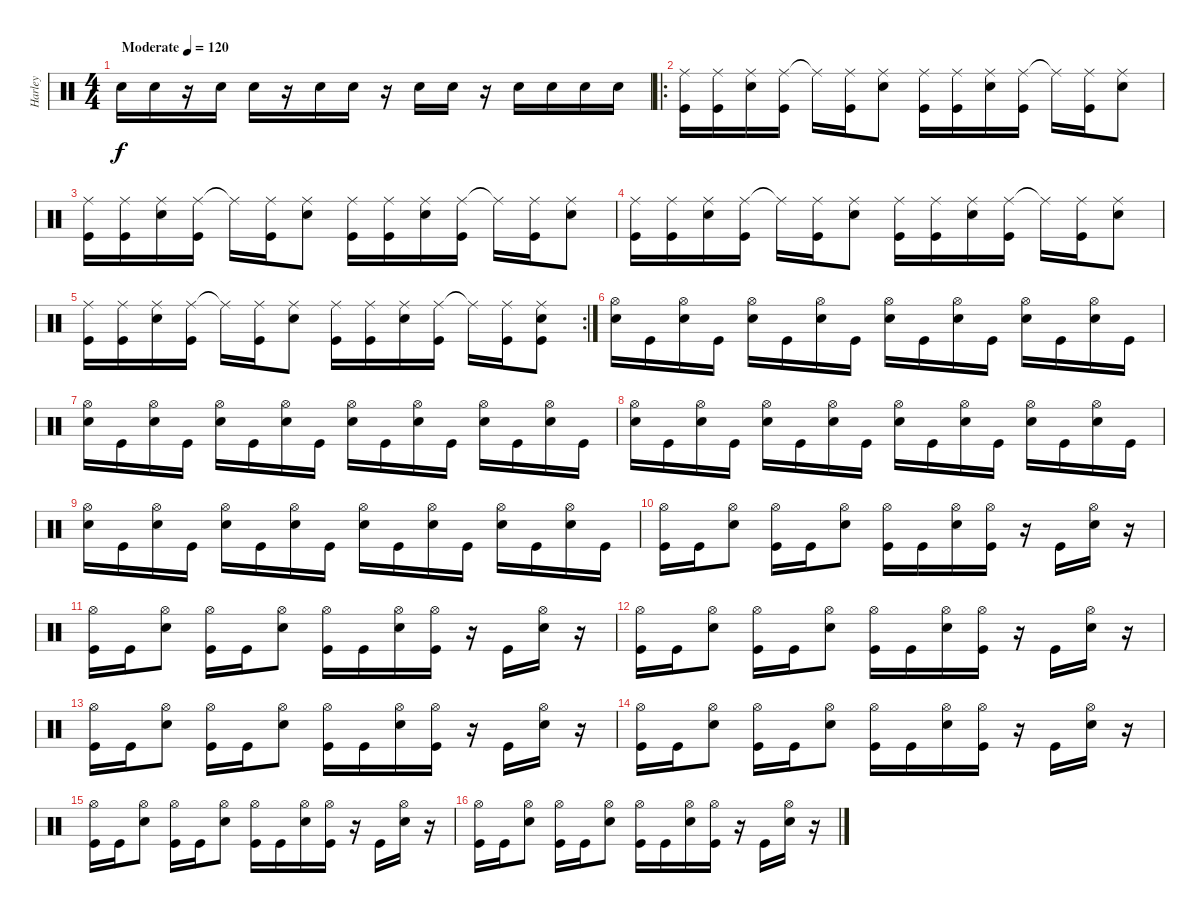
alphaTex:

\track ("Harley" "Harley") {instrument percussion}
\staff {score}
\articulation defaults
\ts (4 4)
\tempo (120 "Moderate")
\clef neutral
\ks c "Snare (hit) 2".16{dy f} "Snare (hit) 2".16
r.16 "Snare (hit) 2".16 "Snare (hit) 2".16 r.16 "Snare (hit) 2".16 "Snare (hit) 2".16 r.16 "Snare (hit) 2".16 "Snare (hit) 2".16 r.16 "Snare (hit) 2".16 "Snare (hit) 2".16 "Snare (hit) 2".16 "Snare (hit) 2".16 |
\ro
("Ride (middle)" "Kick (hit)").16 ("Ride (middle)" "Kick (hit)").16 ("Ride (middle)" "Snare (hit) 2").16 ("Ride (middle)" "Kick (hit)").16 "Ride (middle)"{t}.16 ("Ride (middle)" "Kick (hit)").16 ("Ride (middle)" "Snare (hit) 2").8 ("Ride (middle)" "Kick (hit)").16 ("Ride (middle)" "Kick (hit)").16 ("Ride (middle)" "Snare (hit) 2").16 ("Ride (middle)" "Kick (hit)").16 "Ride (middle)"{t}.16 ("Ride (middle)" "Kick (hit)").16 ("Ride (middle)" "Snare (hit) 2").8 |
("Ride (middle)" "Kick (hit)").16 ("Ride (middle)" "Kick (hit)").16 ("Ride (middle)" "Snare (hit) 2").16 ("Ride (middle)" "Kick (hit)").16 "Ride (middle)"{t}.16 ("Ride (middle)" "Kick (hit)").16 ("Ride (middle)" "Snare (hit) 2").8 ("Ride (middle)" "Kick (hit)").16 ("Ride (middle)" "Kick (hit)").16 ("Ride (middle)" "Snare (hit) 2").16 ("Ride (middle)" "Kick (hit)").16 "Ride (middle)"{t}.16 ("Ride (middle)" "Kick (hit)").16 ("Ride (middle)" "Snare (hit) 2").8 |
("Ride (middle)" "Kick (hit)").16 ("Ride (middle)" "Kick (hit)").16 ("Ride (middle)" "Snare (hit) 2").16 ("Ride (middle)" "Kick (hit)").16 "Ride (middle)"{t}.16 ("Ride (middle)" "Kick (hit)").16 ("Ride (middle)" "Snare (hit) 2").8 ("Ride (middle)" "Kick (hit)").16 ("Ride (middle)" "Kick (hit)").16 ("Ride (middle)" "Snare (hit) 2").16 ("Ride (middle)" "Kick (hit)").16 "Ride (middle)"{t}.16 ("Ride (middle)" "Kick (hit)").16 ("Ride (middle)" "Snare (hit) 2").8 |
\rc 2
("Ride (middle)" "Kick (hit)").16 ("Ride (middle)" "Kick (hit)").16 ("Ride (middle)" "Snare (hit) 2").16 ("Ride (middle)" "Kick (hit)").16 "Ride (middle)"{t}.16 ("Ride (middle)" "Kick (hit)").16 ("Ride (middle)" "Snare (hit) 2").8 ("Ride (middle)" "Kick (hit)").16 ("Ride (middle)" "Kick (hit)").16 ("Ride (middle)" "Snare (hit) 2").16 ("Ride (middle)" "Kick (hit)").16 "Ride (middle)"{t}.16 ("Ride (middle)" "Kick (hit)").16 ("Ride (middle)" "Kick (hit)" "Snare (hit) 2").8 |
("Hi-Hat (open)" "Snare (hit) 2").16 "Kick (hit)".16 ("Hi-Hat (open)" "Snare (hit) 2").16 "Kick (hit)".16 ("Hi-Hat (open)" "Snare (hit) 2").16 "Kick (hit)".16 ("Hi-Hat (open)" "Snare (hit) 2").16 "Kick (hit)".16 ("Hi-Hat (open)" "Snare (hit) 2").16 "Kick (hit)".16 ("Hi-Hat (open)" "Snare (hit) 2").16 "Kick (hit)".16 ("Hi-Hat (open)" "Snare (hit) 2").16 "Kick (hit)".16 ("Hi-Hat (open)" "Snare (hit) 2").16 "Kick (hit)".16 |
("Hi-Hat (open)" "Snare (hit) 2").16 "Kick (hit)".16 ("Hi-Hat (open)" "Snare (hit) 2").16 "Kick (hit)".16 ("Hi-Hat (open)" "Snare (hit) 2").16 "Kick (hit)".16 ("Hi-Hat (open)" "Snare (hit) 2").16 "Kick (hit)".16 ("Hi-Hat (open)" "Snare (hit) 2").16 "Kick (hit)".16 ("Hi-Hat (open)" "Snare (hit) 2").16 "Kick (hit)".16 ("Hi-Hat (open)" "Snare (hit) 2").16 "Kick (hit)".16 ("Hi-Hat (open)" "Snare (hit) 2").16 "Kick (hit)".16 |
("Hi-Hat (open)" "Snare (hit) 2").16 "Kick (hit)".16 ("Hi-Hat (open)" "Snare (hit) 2").16 "Kick (hit)".16 ("Hi-Hat (open)" "Snare (hit) 2").16 "Kick (hit)".16 ("Hi-Hat (open)" "Snare (hit) 2").16 "Kick (hit)".16 ("Hi-Hat (open)" "Snare (hit) 2").16 "Kick (hit)".16 ("Hi-Hat (open)" "Snare (hit) 2").16 "Kick (hit)".16 ("Hi-Hat (open)" "Snare (hit) 2").16 "Kick (hit)".16 ("Hi-Hat (open)" "Snare (hit) 2").16 "Kick (hit)".16 |
("Hi-Hat (open)" "Snare (hit) 2").16 "Kick (hit)".16 ("Hi-Hat (open)" "Snare (hit) 2").16 "Kick (hit)".16 ("Hi-Hat (open)" "Snare (hit) 2").16 "Kick (hit)".16 ("Hi-Hat (open)" "Snare (hit) 2").16 "Kick (hit)".16 ("Hi-Hat (open)" "Snare (hit) 2").16 "Kick (hit)".16 ("Hi-Hat (open)" "Snare (hit) 2").16 "Kick (hit)".16 ("Hi-Hat (open)" "Snare (hit) 2").16 "Kick (hit)".16 ("Hi-Hat (open)" "Snare (hit) 2").16 "Kick (hit)".16 |
("Hi-Hat (open)" "Kick (hit)").16 "Kick (hit)".16 ("Hi-Hat (open)" "Snare (hit) 2").8 ("Hi-Hat (open)" "Kick (hit)").16 "Kick (hit)".16 ("Hi-Hat (open)" "Snare (hit) 2").8 ("Hi-Hat (open)" "Kick (hit)").16 "Kick (hit)".16 ("Hi-Hat (open)" "Snare (hit) 2").16 ("Hi-Hat (open)" "Kick (hit)").16 r.16 "Kick (hit)".16 ("Hi-Hat (open)" "Snare (hit) 2").16 r.16 |
("Hi-Hat (open)" "Kick (hit)").16 "Kick (hit)".16 ("Hi-Hat (open)" "Snare (hit) 2").8 ("Hi-Hat (open)" "Kick (hit)").16 "Kick (hit)".16 ("Hi-Hat (open)" "Snare (hit) 2").8 ("Hi-Hat (open)" "Kick (hit)").16 "Kick (hit)".16 ("Hi-Hat (open)" "Snare (hit) 2").16 ("Hi-Hat (open)" "Kick (hit)").16 r.16 "Kick (hit)".16 ("Hi-Hat (open)" "Snare (hit) 2").16 r.16 |
("Hi-Hat (open)" "Kick (hit)").16 "Kick (hit)".16 ("Hi-Hat (open)" "Snare (hit) 2").8 ("Hi-Hat (open)" "Kick (hit)").16 "Kick (hit)".16 ("Hi-Hat (open)" "Snare (hit) 2").8 ("Hi-Hat (open)" "Kick (hit)").16 "Kick (hit)".16 ("Hi-Hat (open)" "Snare (hit) 2").16 ("Hi-Hat (open)" "Kick (hit)").16 r.16 "Kick (hit)".16 ("Hi-Hat (open)" "Snare (hit) 2").16 r.16 |
("Hi-Hat (open)" "Kick (hit)").16 "Kick (hit)".16 ("Hi-Hat (open)" "Snare (hit) 2").8 ("Hi-Hat (open)" "Kick (hit)").16 "Kick (hit)".16 ("Hi-Hat (open)" "Snare (hit) 2").8 ("Hi-Hat (open)" "Kick (hit)").16 "Kick (hit)".16 ("Hi-Hat (open)" "Snare (hit) 2").16 ("Hi-Hat (open)" "Kick (hit)").16 r.16 "Kick (hit)".16 ("Hi-Hat (open)" "Snare (hit) 2").16 r.16 |
("Hi-Hat (open)" "Kick (hit)").16 "Kick (hit)".16 ("Hi-Hat (open)" "Snare (hit) 2").8 ("Hi-Hat (open)" "Kick (hit)").16 "Kick (hit)".16 ("Hi-Hat (open)" "Snare (hit) 2").8 ("Hi-Hat (open)" "Kick (hit)").16 "Kick (hit)".16 ("Hi-Hat (open)" "Snare (hit) 2").16 ("Hi-Hat (open)" "Kick (hit)").16 r.16 "Kick (hit)".16 ("Hi-Hat (open)" "Snare (hit) 2").16 r.16 |
("Hi-Hat (open)" "Kick (hit)").16 "Kick (hit)".16 ("Hi-Hat (open)" "Snare (hit) 2").8 ("Hi-Hat (open)" "Kick (hit)").16 "Kick (hit)".16 ("Hi-Hat (open)" "Snare (hit) 2").8 ("Hi-Hat (open)" "Kick (hit)").16 "Kick (hit)".16 ("Hi-Hat (open)" "Snare (hit) 2").16 ("Hi-Hat (open)" "Kick (hit)").16 r.16 "Kick (hit)".16 ("Hi-Hat (open)" "Snare (hit) 2").16 r.16 |
("Hi-Hat (open)" "Kick (hit)").16 "Kick (hit)".16 ("Hi-Hat (open)" "Snare (hit) 2").8 ("Hi-Hat (open)" "Kick (hit)").16 "Kick (hit)".16 ("Hi-Hat (open)" "Snare (hit) 2").8 ("Hi-Hat (open)" "Kick (hit)").16 "Kick (hit)".16 ("Hi-Hat (open)" "Snare (hit) 2").16 ("Hi-Hat (open)" "Kick (hit)").16 r.16 "Kick (hit)".16 ("Hi-Hat (open)" "Snare (hit) 2").16 r.16
